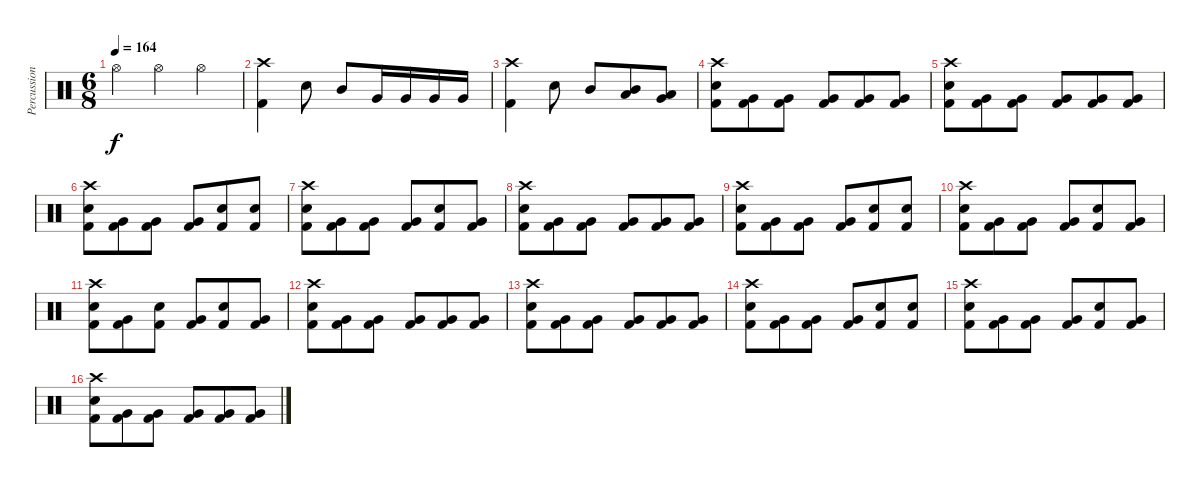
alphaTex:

\track ("Percussion" "Percussion") {instrument percussion}
\staff {score}
\articulation defaults
\ts (6 8)
\tempo 164
\clef neutral
\ks c "Hi-Hat (open)".4{dy f} "Hi-Hat (open)".4 "Hi-Hat (open)".4
|
("Crash high (hit)" "Kick (hit) 2").4 "Snare (hit) 2".8 "Mid Tom (hit)".8 "Very Low Tom (hit)".16 "Very Low Tom (hit)".16 "Very Low Tom (hit)".16 "Very Low Tom (hit)".16 |
("Crash high (hit)" "Kick (hit) 2").4 "Snare (hit) 2".8 "Mid Tom (hit)".8 ("Mid Tom (hit)" "Low Tom (hit)").8 ("Low Tom (hit)" "Very Low Tom (hit)").8 |
("Crash high (hit)" "Snare (hit) 2" "Kick (hit) 2").8 ("Very Low Tom (hit)" "Kick (hit) 2").8 ("Very Low Tom (hit)" "Kick (hit) 2").8 ("Very Low Tom (hit)" "Kick (hit) 2").8 ("Very Low Tom (hit)" "Kick (hit) 2").8 ("Very Low Tom (hit)" "Kick (hit) 2").8 |
("Crash high (hit)" "Snare (hit) 2" "Kick (hit) 2").8 ("Very Low Tom (hit)" "Kick (hit) 2").8 ("Very Low Tom (hit)" "Kick (hit) 2").8 ("Very Low Tom (hit)" "Kick (hit) 2").8 ("Very Low Tom (hit)" "Kick (hit) 2").8 ("Very Low Tom (hit)" "Kick (hit) 2").8 |
("Crash high (hit)" "Snare (hit) 2" "Kick (hit) 2").8 ("Very Low Tom (hit)" "Kick (hit) 2").8 ("Very Low Tom (hit)" "Kick (hit) 2").8 ("Very Low Tom (hit)" "Kick (hit) 2").8 ("Snare (hit) 2" "Kick (hit) 2").8 ("Snare (hit) 2" "Kick (hit) 2").8 |
("Crash high (hit)" "Snare (hit) 2" "Kick (hit) 2").8 ("Very Low Tom (hit)" "Kick (hit) 2").8 ("Very Low Tom (hit)" "Kick (hit) 2").8 ("Very Low Tom (hit)" "Kick (hit) 2").8 ("Snare (hit) 2" "Kick (hit) 2").8 ("Very Low Tom (hit)" "Kick (hit) 2").8 |
("Crash high (hit)" "Snare (hit) 2" "Kick (hit) 2").8 ("Very Low Tom (hit)" "Kick (hit) 2").8 ("Very Low Tom (hit)" "Kick (hit) 2").8 ("Very Low Tom (hit)" "Kick (hit) 2").8 ("Very Low Tom (hit)" "Kick (hit) 2").8 ("Very Low Tom (hit)" "Kick (hit) 2").8 |
("Crash high (hit)" "Snare (hit) 2" "Kick (hit) 2").8 ("Very Low Tom (hit)" "Kick (hit) 2").8 ("Very Low Tom (hit)" "Kick (hit) 2").8 ("Very Low Tom (hit)" "Kick (hit) 2").8 ("Snare (hit) 2" "Kick (hit) 2").8 ("Snare (hit) 2" "Kick (hit) 2").8 |
("Crash high (hit)" "Snare (hit) 2" "Kick (hit) 2").8 ("Very Low Tom (hit)" "Kick (hit) 2").8 ("Very Low Tom (hit)" "Kick (hit) 2").8 ("Very Low Tom (hit)" "Kick (hit) 2").8 ("Snare (hit) 2" "Kick (hit) 2").8 ("Very Low Tom (hit)" "Kick (hit) 2").8 |
("Crash high (hit)" "Snare (hit) 2" "Kick (hit) 2").8 ("Very Low Tom (hit)" "Kick (hit) 2").8 ("Snare (hit) 2" "Kick (hit) 2").8 ("Very Low Tom (hit)" "Kick (hit) 2").8 ("Snare (hit) 2" "Kick (hit) 2").8 ("Very Low Tom (hit)" "Kick (hit) 2").8 |
("Crash high (hit)" "Snare (hit) 2" "Kick (hit) 2").8 ("Very Low Tom (hit)" "Kick (hit) 2").8 ("Very Low Tom (hit)" "Kick (hit) 2").8 ("Very Low Tom (hit)" "Kick (hit) 2").8 ("Very Low Tom (hit)" "Kick (hit) 2").8 ("Very Low Tom (hit)" "Kick (hit) 2").8 |
("Crash high (hit)" "Snare (hit) 2" "Kick (hit) 2").8 ("Very Low Tom (hit)" "Kick (hit) 2").8 ("Very Low Tom (hit)" "Kick (hit) 2").8 ("Very Low Tom (hit)" "Kick (hit) 2").8 ("Very Low Tom (hit)" "Kick (hit) 2").8 ("Very Low Tom (hit)" "Kick (hit) 2").8 |
("Crash high (hit)" "Snare (hit) 2" "Kick (hit) 2").8 ("Very Low Tom (hit)" "Kick (hit) 2").8 ("Very Low Tom (hit)" "Kick (hit) 2").8 ("Very Low Tom (hit)" "Kick (hit) 2").8 ("Snare (hit) 2" "Kick (hit) 2").8 ("Snare (hit) 2" "Kick (hit) 2").8 |
("Crash high (hit)" "Snare (hit) 2" "Kick (hit) 2").8 ("Very Low Tom (hit)" "Kick (hit) 2").8 ("Very Low Tom (hit)" "Kick (hit) 2").8 ("Very Low Tom (hit)" "Kick (hit) 2").8 ("Snare (hit) 2" "Kick (hit) 2").8 ("Very Low Tom (hit)" "Kick (hit) 2").8 |
("Crash high (hit)" "Snare (hit) 2" "Kick (hit) 2").8 ("Very Low Tom (hit)" "Kick (hit) 2").8 ("Very Low Tom (hit)" "Kick (hit) 2").8 ("Very Low Tom (hit)" "Kick (hit) 2").8 ("Very Low Tom (hit)" "Kick (hit) 2").8 ("Very Low Tom (hit)" "Kick (hit) 2").8
